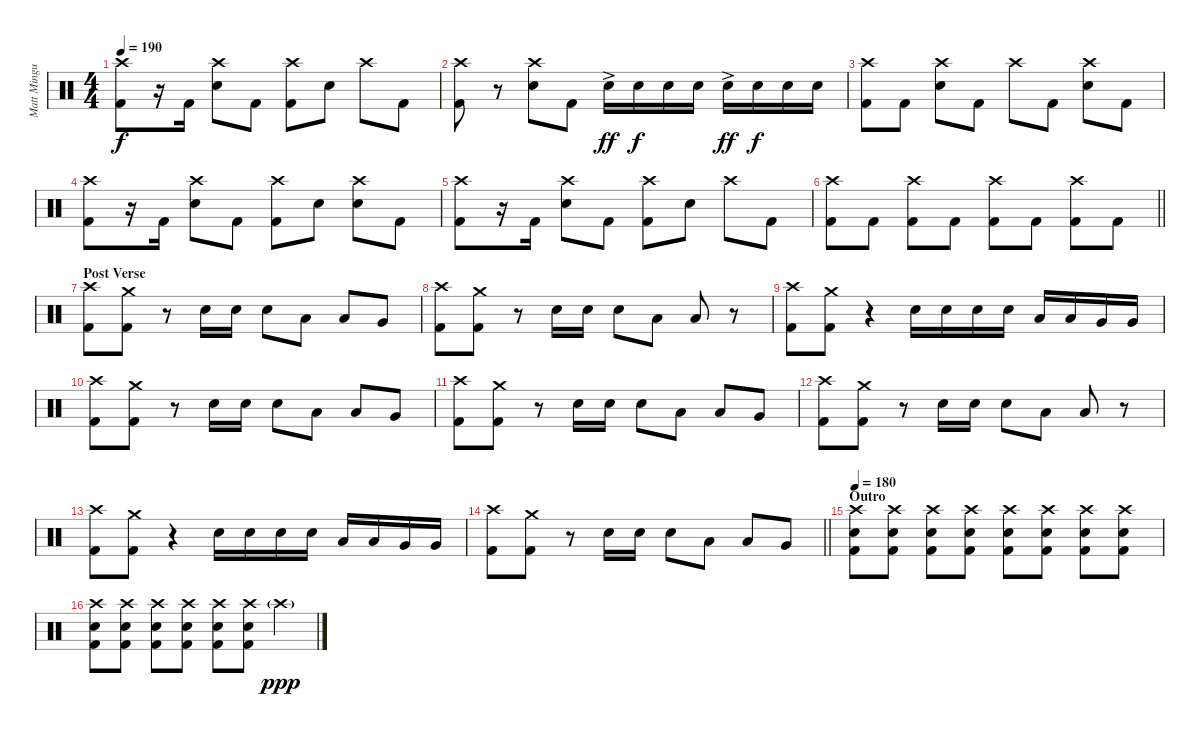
\track ("Matt Mingus (Drums)" "Matt Mingu") {instrument percussion}
\staff {score}
\articulation defaults
\ts (4 4)
\tempo 190
\clef neutral
\ks c
("Crash high (hit)" "Kick (hit) 2").8{dy f} r.16 "Kick (hit) 2".16 ("Crash high (hit)" "Electric Snare (hit)").8 "Kick (hit) 2".8 ("Crash high (hit)" "Kick (hit) 2").8 "Electric Snare (hit)".8 "Crash high (hit)".8 "Kick (hit) 2".8 |
("Crash high (hit)" "Kick (hit) 2").8 r.8 ("Crash high (hit)" "Electric Snare (hit)").8 "Kick (hit) 2".8 "Electric Snare (hit)"{ac}.16{dy ff} "Electric Snare (hit)".16{dy f} "Electric Snare (hit)".16 "Electric Snare (hit)".16 "Electric Snare (hit)"{ac}.16{dy ff} "Electric Snare (hit)".16{dy f} "Electric Snare (hit)".16 "Electric Snare (hit)".16 |
("Crash high (hit)" "Kick (hit) 2").8 "Kick (hit) 2".8 ("Crash high (hit)" "Electric Snare (hit)").8 "Kick (hit) 2".8 "Crash high (hit)".8 "Kick (hit) 2".8 ("Crash high (hit)" "Electric Snare (hit)").8 "Kick (hit) 2".8 |
("Crash high (hit)" "Kick (hit) 2").8 r.16 "Kick (hit) 2".16 ("Crash high (hit)" "Electric Snare (hit)").8 "Kick (hit) 2".8 ("Crash high (hit)" "Kick (hit) 2").8 "Electric Snare (hit)".8 ("Crash high (hit)" "Electric Snare (hit)").8 "Kick (hit) 2".8 |
("Crash high (hit)" "Kick (hit) 2").8 r.16 "Kick (hit) 2".16 ("Crash high (hit)" "Electric Snare (hit)").8 "Kick (hit) 2".8 ("Crash high (hit)" "Kick (hit) 2").8 "Electric Snare (hit)".8 "Crash high (hit)".8 "Kick (hit) 2".8 |
\barLineRight lightlight
("Crash high (hit)" "Kick (hit) 2").8 "Kick (hit) 2".8 ("Crash high (hit)" "Kick (hit) 2").8 "Kick (hit) 2".8 ("Crash high (hit)" "Kick (hit) 2").8 "Kick (hit) 2".8 ("Crash high (hit)" "Kick (hit) 2").8 "Kick (hit) 2".8 |
\section ("" "Post Verse")
("Crash high (hit)" "Kick (hit) 2").8 ("Crash medium (hit)" "Kick (hit) 2").8 r.8 "Electric Snare (hit)".16 "Electric Snare (hit)".16 "Electric Snare (hit)".8 "Low Tom (hit)".8 "Low Tom (hit)".8 "Very Low Tom (hit)".8 |
("Crash high (hit)" "Kick (hit) 2").8 ("Crash medium (hit)" "Kick (hit) 2").8 r.8 "Electric Snare (hit)".16 "Electric Snare (hit)".16 "Electric Snare (hit)".8 "Low Tom (hit)".8 "Low Tom (hit)".8 r.8 |
("Crash high (hit)" "Kick (hit) 2").8 ("Crash medium (hit)" "Kick (hit) 2").8 r.4 "Electric Snare (hit)".16 "Electric Snare (hit)".16 "Electric Snare (hit)".16 "Electric Snare (hit)".16 "Low Tom (hit)".16 "Low Tom (hit)".16 "Very Low Tom (hit)".16 "Very Low Tom (hit)".16 |
("Crash high (hit)" "Kick (hit) 2").8 ("Crash medium (hit)" "Kick (hit) 2").8 r.8 "Electric Snare (hit)".16 "Electric Snare (hit)".16 "Electric Snare (hit)".8 "Low Tom (hit)".8 "Low Tom (hit)".8 "Very Low Tom (hit)".8 |
("Crash high (hit)" "Kick (hit) 2").8 ("Crash medium (hit)" "Kick (hit) 2").8 r.8 "Electric Snare (hit)".16 "Electric Snare (hit)".16 "Electric Snare (hit)".8 "Low Tom (hit)".8 "Low Tom (hit)".8 "Very Low Tom (hit)".8 |
("Crash high (hit)" "Kick (hit) 2").8 ("Crash medium (hit)" "Kick (hit) 2").8 r.8 "Electric Snare (hit)".16 "Electric Snare (hit)".16 "Electric Snare (hit)".8 "Low Tom (hit)".8 "Low Tom (hit)".8 r.8 |
("Crash high (hit)" "Kick (hit) 2").8 ("Crash medium (hit)" "Kick (hit) 2").8 r.4 "Electric Snare (hit)".16 "Electric Snare (hit)".16 "Electric Snare (hit)".16 "Electric Snare (hit)".16 "Low Tom (hit)".16 "Low Tom (hit)".16 "Very Low Tom (hit)".16 "Very Low Tom (hit)".16 |
\barLineRight lightlight
("Crash high (hit)" "Kick (hit) 2").8 ("Crash medium (hit)" "Kick (hit) 2").8 r.8 "Electric Snare (hit)".16 "Electric Snare (hit)".16 "Electric Snare (hit)".8 "Low Tom (hit)".8 "Low Tom (hit)".8 "Very Low Tom (hit)".8 |
\section ("" "Outro")
\tempo 180
("Crash high (hit)" "Electric Snare (hit)" "Kick (hit) 2").8 ("Crash high (hit)" "Electric Snare (hit)" "Kick (hit) 2").8 ("Crash high (hit)" "Electric Snare (hit)" "Kick (hit) 2").8 ("Crash high (hit)" "Electric Snare (hit)" "Kick (hit) 2").8 ("Crash high (hit)" "Electric Snare (hit)" "Kick (hit) 2").8 ("Crash high (hit)" "Electric Snare (hit)" "Kick (hit) 2").8 ("Crash high (hit)" "Electric Snare (hit)" "Kick (hit) 2").8 ("Crash high (hit)" "Electric Snare (hit)" "Kick (hit) 2").8 |
("Crash high (hit)" "Electric Snare (hit)" "Kick (hit) 2").8 ("Crash high (hit)" "Electric Snare (hit)" "Kick (hit) 2").8 ("Crash high (hit)" "Electric Snare (hit)" "Kick (hit) 2").8 ("Crash high (hit)" "Electric Snare (hit)" "Kick (hit) 2").8 ("Crash high (hit)" "Electric Snare (hit)" "Kick (hit) 2").8 ("Crash high (hit)" "Electric Snare (hit)" "Kick (hit) 2").8 "Crash high (hit)"{g}.4{dy ppp}
